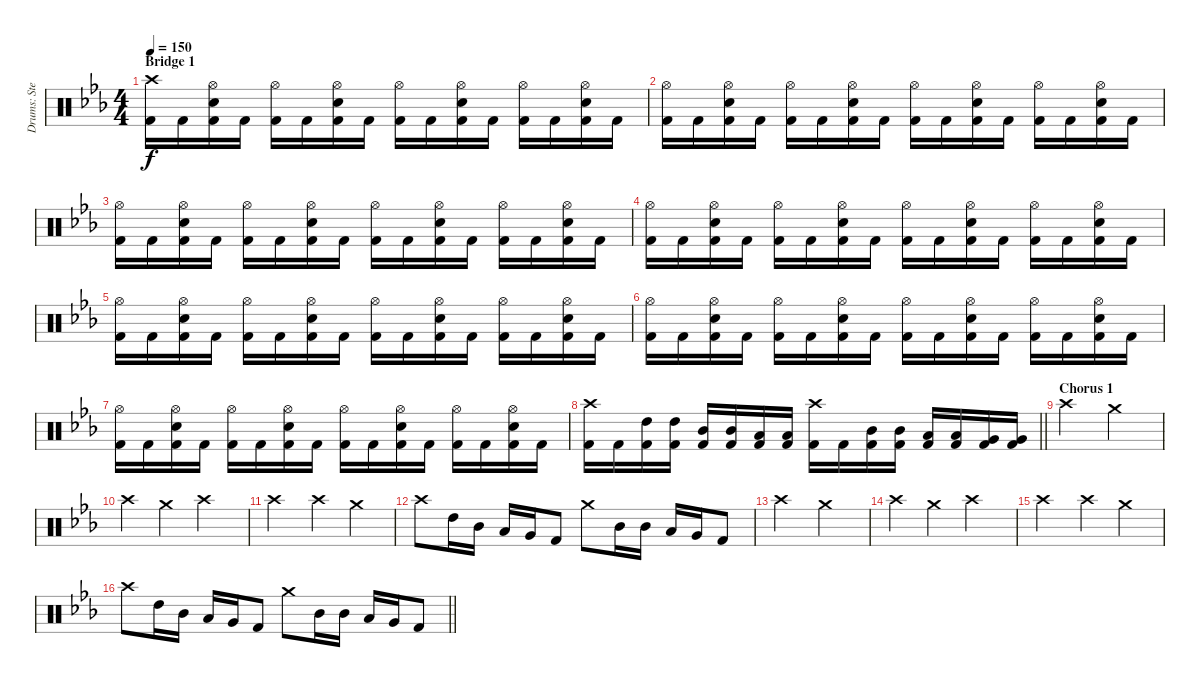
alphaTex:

\track ("Drums: Stefan Svantesson" "Drums: Ste") {instrument percussion}
\staff {score}
\articulation defaults
\ts (4 4)
\section ("" "Bridge 1")
\tempo 150
\clef neutral
\ks cminor
("Crash high (hit)" "Kick (hit) 2").16{dy f} "Kick (hit) 2".16 ("Hi-Hat (open)" "Electric Snare (hit)" "Kick (hit) 2").16 "Kick (hit) 2".16 ("Hi-Hat (open)" "Kick (hit) 2").16 "Kick (hit) 2".16 ("Hi-Hat (open)" "Electric Snare (hit)" "Kick (hit) 2").16 "Kick (hit) 2".16 ("Hi-Hat (open)" "Kick (hit) 2").16 "Kick (hit) 2".16 ("Hi-Hat (open)" "Electric Snare (hit)" "Kick (hit) 2").16 "Kick (hit) 2".16 ("Hi-Hat (open)" "Kick (hit) 2").16 "Kick (hit) 2".16 ("Hi-Hat (open)" "Electric Snare (hit)" "Kick (hit) 2").16 "Kick (hit) 2".16 |
("Hi-Hat (open)" "Kick (hit) 2").16 "Kick (hit) 2".16 ("Hi-Hat (open)" "Electric Snare (hit)" "Kick (hit) 2").16 "Kick (hit) 2".16 ("Hi-Hat (open)" "Kick (hit) 2").16 "Kick (hit) 2".16 ("Hi-Hat (open)" "Electric Snare (hit)" "Kick (hit) 2").16 "Kick (hit) 2".16 ("Hi-Hat (open)" "Kick (hit) 2").16 "Kick (hit) 2".16 ("Hi-Hat (open)" "Electric Snare (hit)" "Kick (hit) 2").16 "Kick (hit) 2".16 ("Hi-Hat (open)" "Kick (hit) 2").16 "Kick (hit) 2".16 ("Hi-Hat (open)" "Electric Snare (hit)" "Kick (hit) 2").16 "Kick (hit) 2".16 |
("Hi-Hat (open)" "Kick (hit) 2").16 "Kick (hit) 2".16 ("Hi-Hat (open)" "Electric Snare (hit)" "Kick (hit) 2").16 "Kick (hit) 2".16 ("Hi-Hat (open)" "Kick (hit) 2").16 "Kick (hit) 2".16 ("Hi-Hat (open)" "Electric Snare (hit)" "Kick (hit) 2").16 "Kick (hit) 2".16 ("Hi-Hat (open)" "Kick (hit) 2").16 "Kick (hit) 2".16 ("Hi-Hat (open)" "Electric Snare (hit)" "Kick (hit) 2").16 "Kick (hit) 2".16 ("Hi-Hat (open)" "Kick (hit) 2").16 "Kick (hit) 2".16 ("Hi-Hat (open)" "Electric Snare (hit)" "Kick (hit) 2").16 "Kick (hit) 2".16 |
("Hi-Hat (open)" "Kick (hit) 2").16 "Kick (hit) 2".16 ("Hi-Hat (open)" "Electric Snare (hit)" "Kick (hit) 2").16 "Kick (hit) 2".16 ("Hi-Hat (open)" "Kick (hit) 2").16 "Kick (hit) 2".16 ("Hi-Hat (open)" "Electric Snare (hit)" "Kick (hit) 2").16 "Kick (hit) 2".16 ("Hi-Hat (open)" "Kick (hit) 2").16 "Kick (hit) 2".16 ("Hi-Hat (open)" "Electric Snare (hit)" "Kick (hit) 2").16 "Kick (hit) 2".16 ("Hi-Hat (open)" "Kick (hit) 2").16 "Kick (hit) 2".16 ("Hi-Hat (open)" "Electric Snare (hit)" "Kick (hit) 2").16 "Kick (hit) 2".16 |
("Hi-Hat (open)" "Kick (hit) 2").16 "Kick (hit) 2".16 ("Hi-Hat (open)" "Electric Snare (hit)" "Kick (hit) 2").16 "Kick (hit) 2".16 ("Hi-Hat (open)" "Kick (hit) 2").16 "Kick (hit) 2".16 ("Hi-Hat (open)" "Electric Snare (hit)" "Kick (hit) 2").16 "Kick (hit) 2".16 ("Hi-Hat (open)" "Kick (hit) 2").16 "Kick (hit) 2".16 ("Hi-Hat (open)" "Electric Snare (hit)" "Kick (hit) 2").16 "Kick (hit) 2".16 ("Hi-Hat (open)" "Kick (hit) 2").16 "Kick (hit) 2".16 ("Hi-Hat (open)" "Electric Snare (hit)" "Kick (hit) 2").16 "Kick (hit) 2".16 |
("Hi-Hat (open)" "Kick (hit) 2").16 "Kick (hit) 2".16 ("Hi-Hat (open)" "Electric Snare (hit)" "Kick (hit) 2").16 "Kick (hit) 2".16 ("Hi-Hat (open)" "Kick (hit) 2").16 "Kick (hit) 2".16 ("Hi-Hat (open)" "Electric Snare (hit)" "Kick (hit) 2").16 "Kick (hit) 2".16 ("Hi-Hat (open)" "Kick (hit) 2").16 "Kick (hit) 2".16 ("Hi-Hat (open)" "Electric Snare (hit)" "Kick (hit) 2").16 "Kick (hit) 2".16 ("Hi-Hat (open)" "Kick (hit) 2").16 "Kick (hit) 2".16 ("Hi-Hat (open)" "Electric Snare (hit)" "Kick (hit) 2").16 "Kick (hit) 2".16 |
("Hi-Hat (open)" "Kick (hit) 2").16 "Kick (hit) 2".16 ("Hi-Hat (open)" "Electric Snare (hit)" "Kick (hit) 2").16 "Kick (hit) 2".16 ("Hi-Hat (open)" "Kick (hit) 2").16 "Kick (hit) 2".16 ("Hi-Hat (open)" "Electric Snare (hit)" "Kick (hit) 2").16 "Kick (hit) 2".16 ("Hi-Hat (open)" "Kick (hit) 2").16 "Kick (hit) 2".16 ("Hi-Hat (open)" "Electric Snare (hit)" "Kick (hit) 2").16 "Kick (hit) 2".16 ("Hi-Hat (open)" "Kick (hit) 2").16 "Kick (hit) 2".16 ("Hi-Hat (open)" "Electric Snare (hit)" "Kick (hit) 2").16 "Kick (hit) 2".16 |
\barLineRight lightlight
("Crash high (hit)" "Kick (hit) 2").16 "Kick (hit) 2".16 ("High Tom (hit)" "Kick (hit) 2").16 ("High Tom (hit)" "Kick (hit) 2").16 ("Mid Tom (hit)" "Kick (hit) 2").16 ("Mid Tom (hit)" "Kick (hit) 2").16 ("Low Tom (hit)" "Kick (hit) 2").16 ("Low Tom (hit)" "Kick (hit) 2").16 ("Crash high (hit)" "Kick (hit) 2").16 "Kick (hit) 2".16 ("Mid Tom (hit)" "Kick (hit) 2").16 ("Mid Tom (hit)" "Kick (hit) 2").16 ("Low Tom (hit)" "Kick (hit) 2").16 ("Low Tom (hit)" "Kick (hit) 2").16 ("Very Low Tom (hit)" "Kick (hit) 2").16 ("Very Low Tom (hit)" "Kick (hit) 2").16 |
\section ("" "Chorus 1")
"Crash high (hit)".2 "Crash medium (hit)".2 |
"Crash high (hit)".4 "Crash medium (hit)".4 "Crash high (hit)".2 |
"Crash high (hit)".2 "Crash high (hit)".4 "Crash medium (hit)".4 |
"Crash high (hit)".8 "High Tom (hit)".16 "Mid Tom (hit)".16 "Low Tom (hit)".16 "Very Low Tom (hit)".16 "Kick (hit) 2".8 "Crash medium (hit)".8 "Mid Tom (hit)".16 "Mid Tom (hit)".16 "Low Tom (hit)".16 "Very Low Tom (hit)".16 "Kick (hit) 2".8 |
"Crash high (hit)".2 "Crash medium (hit)".2 |
"Crash high (hit)".4 "Crash medium (hit)".4 "Crash high (hit)".2 |
"Crash high (hit)".2 "Crash high (hit)".4 "Crash medium (hit)".4 |
\barLineRight lightlight "Crash high (hit)".8 "High Tom (hit)".16 "Mid Tom (hit)".16 "Low Tom (hit)".16 "Very Low Tom (hit)".16 "Kick (hit) 2".8 "Crash medium (hit)".8 "Mid Tom (hit)".16 "Mid Tom (hit)".16 "Low Tom (hit)".16 "Very Low Tom (hit)".16 "Kick (hit) 2".8
